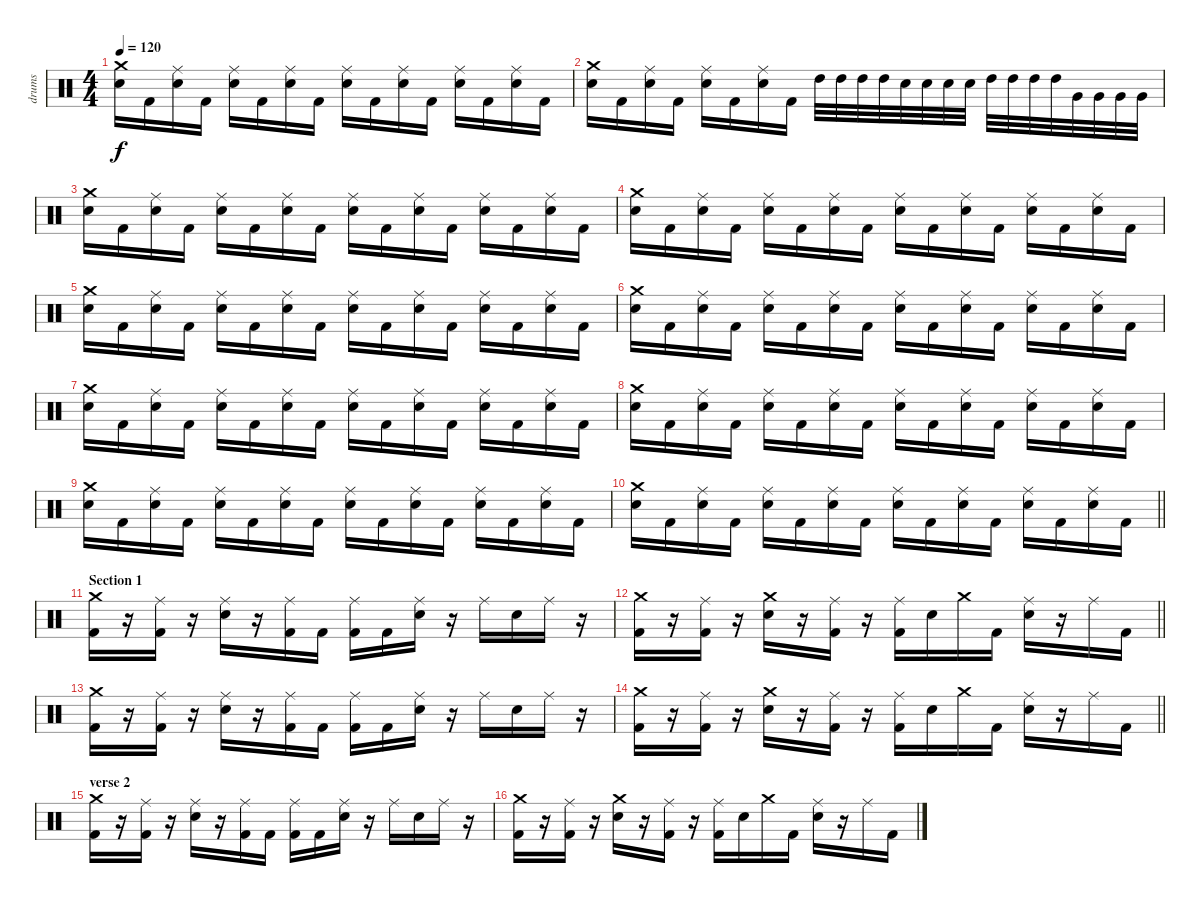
\track ("drums" "drums") {instrument percussion}
\staff {score}
\articulation defaults
\ts (4 4)
\tempo 120
\clef neutral
\ks c
("Crash medium (hit)" "Snare (hit) 2").16{dy f} "Kick (hit) 2".16 ("Ride (middle)" "Snare (hit) 2").16 "Kick (hit) 2".16 ("Ride (middle)" "Snare (hit) 2").16 "Kick (hit) 2".16 ("Ride (middle)" "Snare (hit) 2").16 "Kick (hit) 2".16 ("Ride (middle)" "Snare (hit) 2").16 "Kick (hit) 2".16 ("Ride (middle)" "Snare (hit) 2").16 "Kick (hit) 2".16 ("Ride (middle)" "Snare (hit) 2").16 "Kick (hit) 2".16 ("Ride (middle)" "Snare (hit) 2").16 "Kick (hit) 2".16 |
("Crash medium (hit)" "Snare (hit) 2").16 "Kick (hit) 2".16 ("Ride (middle)" "Snare (hit) 2").16 "Kick (hit) 2".16 ("Ride (middle)" "Snare (hit) 2").16 "Kick (hit) 2".16 ("Ride (middle)" "Snare (hit) 2").16 "Kick (hit) 2".16 "High Tom (hit)".32 "High Tom (hit)".32 "High Tom (hit)".32 "High Tom (hit)".32 "Snare (hit) 2".32 "Snare (hit) 2".32 "Snare (hit) 2".32 "Snare (hit) 2".32 "High Tom (hit)".32 "High Tom (hit)".32 "High Tom (hit)".32 "High Tom (hit)".32 "Very Low Tom (hit)".32 "Very Low Tom (hit)".32 "Very Low Tom (hit)".32 "Very Low Tom (hit)".32 |
("Crash medium (hit)" "Snare (hit) 2").16 "Kick (hit) 2".16 ("Ride (middle)" "Snare (hit) 2").16 "Kick (hit) 2".16 ("Ride (middle)" "Snare (hit) 2").16 "Kick (hit) 2".16 ("Ride (middle)" "Snare (hit) 2").16 "Kick (hit) 2".16 ("Ride (middle)" "Snare (hit) 2").16 "Kick (hit) 2".16 ("Ride (middle)" "Snare (hit) 2").16 "Kick (hit) 2".16 ("Ride (middle)" "Snare (hit) 2").16 "Kick (hit) 2".16 ("Ride (middle)" "Snare (hit) 2").16 "Kick (hit) 2".16 |
("Crash medium (hit)" "Snare (hit) 2").16 "Kick (hit) 2".16 ("Ride (middle)" "Snare (hit) 2").16 "Kick (hit) 2".16 ("Ride (middle)" "Snare (hit) 2").16 "Kick (hit) 2".16 ("Ride (middle)" "Snare (hit) 2").16 "Kick (hit) 2".16 ("Ride (middle)" "Snare (hit) 2").16 "Kick (hit) 2".16 ("Ride (middle)" "Snare (hit) 2").16 "Kick (hit) 2".16 ("Ride (middle)" "Snare (hit) 2").16 "Kick (hit) 2".16 ("Ride (middle)" "Snare (hit) 2").16 "Kick (hit) 2".16 |
("Crash medium (hit)" "Snare (hit) 2").16 "Kick (hit) 2".16 ("Ride (middle)" "Snare (hit) 2").16 "Kick (hit) 2".16 ("Ride (middle)" "Snare (hit) 2").16 "Kick (hit) 2".16 ("Ride (middle)" "Snare (hit) 2").16 "Kick (hit) 2".16 ("Ride (middle)" "Snare (hit) 2").16 "Kick (hit) 2".16 ("Ride (middle)" "Snare (hit) 2").16 "Kick (hit) 2".16 ("Ride (middle)" "Snare (hit) 2").16 "Kick (hit) 2".16 ("Ride (middle)" "Snare (hit) 2").16 "Kick (hit) 2".16 |
("Crash medium (hit)" "Snare (hit) 2").16 "Kick (hit) 2".16 ("Ride (middle)" "Snare (hit) 2").16 "Kick (hit) 2".16 ("Ride (middle)" "Snare (hit) 2").16 "Kick (hit) 2".16 ("Ride (middle)" "Snare (hit) 2").16 "Kick (hit) 2".16 ("Ride (middle)" "Snare (hit) 2").16 "Kick (hit) 2".16 ("Ride (middle)" "Snare (hit) 2").16 "Kick (hit) 2".16 ("Ride (middle)" "Snare (hit) 2").16 "Kick (hit) 2".16 ("Ride (middle)" "Snare (hit) 2").16 "Kick (hit) 2".16 |
("Crash medium (hit)" "Snare (hit) 2").16 "Kick (hit) 2".16 ("Ride (middle)" "Snare (hit) 2").16 "Kick (hit) 2".16 ("Ride (middle)" "Snare (hit) 2").16 "Kick (hit) 2".16 ("Ride (middle)" "Snare (hit) 2").16 "Kick (hit) 2".16 ("Ride (middle)" "Snare (hit) 2").16 "Kick (hit) 2".16 ("Ride (middle)" "Snare (hit) 2").16 "Kick (hit) 2".16 ("Ride (middle)" "Snare (hit) 2").16 "Kick (hit) 2".16 ("Ride (middle)" "Snare (hit) 2").16 "Kick (hit) 2".16 |
("Crash medium (hit)" "Snare (hit) 2").16 "Kick (hit) 2".16 ("Ride (middle)" "Snare (hit) 2").16 "Kick (hit) 2".16 ("Ride (middle)" "Snare (hit) 2").16 "Kick (hit) 2".16 ("Ride (middle)" "Snare (hit) 2").16 "Kick (hit) 2".16 ("Ride (middle)" "Snare (hit) 2").16 "Kick (hit) 2".16 ("Ride (middle)" "Snare (hit) 2").16 "Kick (hit) 2".16 ("Ride (middle)" "Snare (hit) 2").16 "Kick (hit) 2".16 ("Ride (middle)" "Snare (hit) 2").16 "Kick (hit) 2".16 |
("Crash medium (hit)" "Snare (hit) 2").16 "Kick (hit) 2".16 ("Ride (middle)" "Snare (hit) 2").16 "Kick (hit) 2".16 ("Ride (middle)" "Snare (hit) 2").16 "Kick (hit) 2".16 ("Ride (middle)" "Snare (hit) 2").16 "Kick (hit) 2".16 ("Ride (middle)" "Snare (hit) 2").16 "Kick (hit) 2".16 ("Ride (middle)" "Snare (hit) 2").16 "Kick (hit) 2".16 ("Ride (middle)" "Snare (hit) 2").16 "Kick (hit) 2".16 ("Ride (middle)" "Snare (hit) 2").16 "Kick (hit) 2".16 |
\barLineRight lightlight
("Crash medium (hit)" "Snare (hit) 2").16 "Kick (hit) 2".16 ("Ride (middle)" "Snare (hit) 2").16 "Kick (hit) 2".16 ("Ride (middle)" "Snare (hit) 2").16 "Kick (hit) 2".16 ("Ride (middle)" "Snare (hit) 2").16 "Kick (hit) 2".16 ("Ride (middle)" "Snare (hit) 2").16 "Kick (hit) 2".16 ("Ride (middle)" "Snare (hit) 2").16 "Kick (hit) 2".16 ("Ride (middle)" "Snare (hit) 2").16 "Kick (hit) 2".16 ("Ride (middle)" "Snare (hit) 2").16 "Kick (hit) 2".16 |
\section ("" "Section 1")
("Crash medium (hit)" "Kick (hit) 2").16 r.16 ("Ride (middle)" "Kick (hit) 2").16 r.16 ("Ride (middle)" "Snare (hit) 2").16 r.16 ("Ride (middle)" "Kick (hit) 2").16 "Kick (hit) 2".16 ("Ride (middle)" "Kick (hit) 2").16 "Kick (hit) 2".16 ("Ride (middle)" "Snare (hit) 2").16 r.16 "Ride (middle)".16 "Snare (hit) 2".16 "Ride (middle)".16 r.16 |
\barLineRight lightlight
("Crash medium (hit)" "Kick (hit) 2").16 r.16 ("Ride (middle)" "Kick (hit) 2").16 r.16 ("Crash medium (hit)" "Snare (hit) 2").16 r.16 ("Ride (middle)" "Kick (hit) 2").16 r.16 ("Ride (middle)" "Kick (hit) 2").16 "Snare (hit) 2".16 "Crash medium (hit)".16 "Kick (hit) 2".16 ("Ride (middle)" "Snare (hit) 2").16 r.16 "Ride (middle)".16 "Kick (hit) 2".16 |
("Crash medium (hit)" "Kick (hit) 2").16 r.16 ("Ride (middle)" "Kick (hit) 2").16 r.16 ("Ride (middle)" "Snare (hit) 2").16 r.16 ("Ride (middle)" "Kick (hit) 2").16 "Kick (hit) 2".16 ("Ride (middle)" "Kick (hit) 2").16 "Kick (hit) 2".16 ("Ride (middle)" "Snare (hit) 2").16 r.16 "Ride (middle)".16 "Snare (hit) 2".16 "Ride (middle)".16 r.16 |
\barLineRight lightlight
("Crash medium (hit)" "Kick (hit) 2").16 r.16 ("Ride (middle)" "Kick (hit) 2").16 r.16 ("Crash medium (hit)" "Snare (hit) 2").16 r.16 ("Ride (middle)" "Kick (hit) 2").16 r.16 ("Ride (middle)" "Kick (hit) 2").16 "Snare (hit) 2".16 "Crash medium (hit)".16 "Kick (hit) 2".16 ("Ride (middle)" "Snare (hit) 2").16 r.16 "Ride (middle)".16 "Kick (hit) 2".16 |
\section ("" "verse 2")
("Crash medium (hit)" "Kick (hit) 2").16 r.16 ("Ride (middle)" "Kick (hit) 2").16 r.16 ("Ride (middle)" "Snare (hit) 2").16 r.16 ("Ride (middle)" "Kick (hit) 2").16 "Kick (hit) 2".16 ("Ride (middle)" "Kick (hit) 2").16 "Kick (hit) 2".16 ("Ride (middle)" "Snare (hit) 2").16 r.16 "Ride (middle)".16 "Snare (hit) 2".16 "Ride (middle)".16 r.16 |
("Crash medium (hit)" "Kick (hit) 2").16 r.16 ("Ride (middle)" "Kick (hit) 2").16 r.16 ("Crash medium (hit)" "Snare (hit) 2").16 r.16 ("Ride (middle)" "Kick (hit) 2").16 r.16 ("Ride (middle)" "Kick (hit) 2").16 "Snare (hit) 2".16 "Crash medium (hit)".16 "Kick (hit) 2".16 ("Ride (middle)" "Snare (hit) 2").16 r.16 "Ride (middle)".16 "Kick (hit) 2".16
